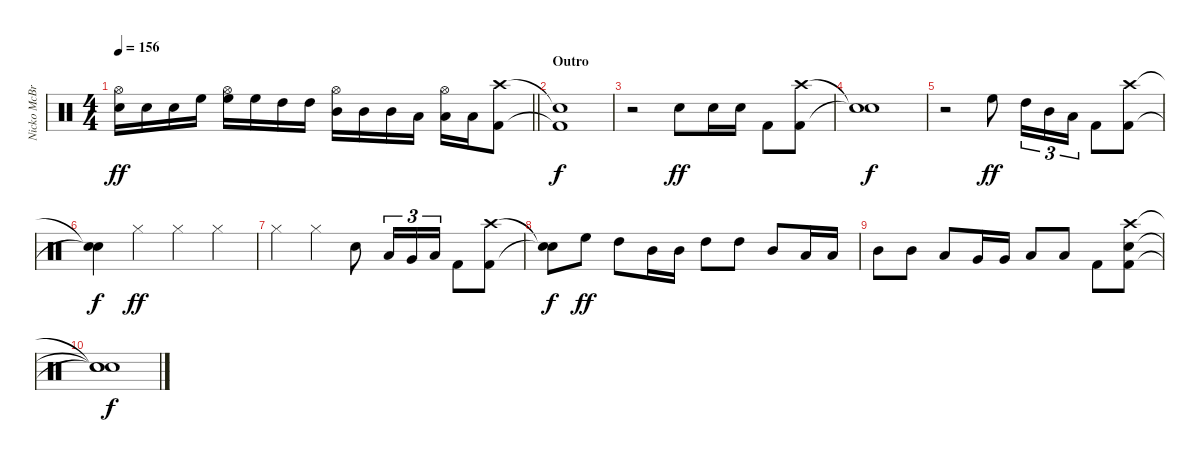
\track ("Nicko McBrain" "Nicko McBr") {instrument percussion}
\staff {score}
\articulation defaults
\ts (4 4)
\tempo 156
\clef neutral
\barLineRight lightlight
\ks c
("Snare (hit) 2" "Hi-Hat (open)").16{dy ff} "Snare (hit) 2".16 "Snare (hit) 2".16 "High Floor Tom (hit)".16 ("Hi-Hat (open)" "High Floor Tom (hit)").16 "High Floor Tom (hit)".16 "High Tom (hit)".16 "High Tom (hit)".16 ("Hi-Hat (open)" "Mid Tom (hit)").16 "Mid Tom (hit)".16 "Mid Tom (hit)".16 "Low Tom (hit)".16 ("Low Tom (hit)" "Hi-Hat (open)").16 "Low Tom (hit)".16 ("Kick (hit) 2" "Crash high (hit)").8 |
\section ("" "Outro")
("Kick (hit) 2"{t} "Snare (hit) 2"{t}).1{dy f} |
r.2 "Snare (hit) 2".8{dy ff} "Snare (hit) 2".16 "Snare (hit) 2".16 "Kick (hit) 2".8 ("Kick (hit) 2" "Crash high (hit)").8 |
("Snare (hit)"{t} "Snare (hit)"{t}).1{dy f} |
r.2 "High Floor Tom (hit)".8{dy ff} "High Tom (hit)".16{tu (3 2)} "Mid Tom (hit)".16{tu (3 2)} "Low Tom (hit)".16{tu (3 2)} "Kick (hit) 2".8 ("Kick (hit) 2" "Crash high (hit)").8 |
("Snare (hit)"{t} "Snare (hit)"{t}).4{dy f} "Hi-Hat (closed)".4{dy ff} "Hi-Hat (closed)".4 "Hi-Hat (closed)".4 |
"Hi-Hat (closed)".4 "Hi-Hat (closed)".4 "Snare (hit) 2".8 "Low Tom (hit)".16{tu (3 2)} "Very Low Tom (hit)".16{tu (3 2)} "Low Floor Tom (hit)".16{tu (3 2)} "Kick (hit) 2".8 ("Kick (hit) 2" "Crash high (hit)").8 |
("Snare (hit)"{t} "Snare (hit)"{t}).8{dy f} "High Floor Tom (hit)".8{dy ff} "High Tom (hit)".8 "Mid Tom (hit)".16 "Mid Tom (hit)".16 "High Tom (hit)".8 "High Tom (hit)".8 "Mid Tom (hit)".8 "Low Tom (hit)".16 "Low Tom (hit)".16 |
"Mid Tom (hit)".8 "Mid Tom (hit)".8 "Low Tom (hit)".8 "Very Low Tom (hit)".16 "Very Low Tom (hit)".16 "Low Tom (hit)".8 "Low Tom (hit)".8 "Kick (hit) 2".8 ("Snare (hit) 2" "Kick (hit) 2" "Crash high (hit)").8 |
("Snare (hit)"{t} "Snare (hit)"{t} "Snare (hit)"{t}).1{dy f}
